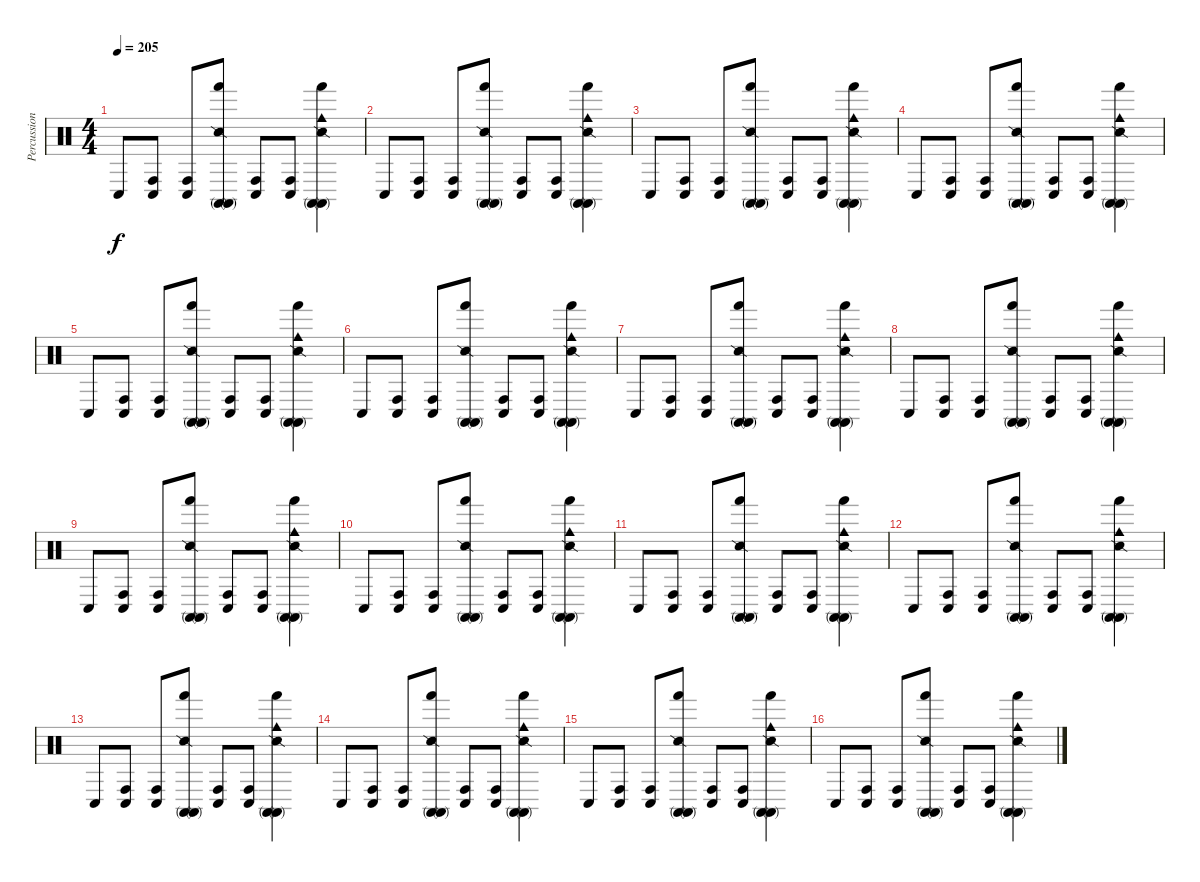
\track ("Percussion" "Percussion") {instrument percussion}
\staff {score}
\articulation defaults
\ts (4 4)
\tempo 205
\clef neutral
\ks c "Conga low (hit)".8{dy f}
("Conga high (hit)" "Conga low (hit)").8 ("Conga high (hit)" "Conga low (hit)").8 ("Snare (side stick) 2" "Hand (hit)" "Conga high (mute)" "Conga high (mute)").8 ("Conga high (hit)" "Conga low (hit)").8 ("Conga high (hit)" "Conga low (hit)").8 ("Snare (side stick) 2" "Hand (hit)" "Cowbell medium (hit)" "Conga high (mute)" "Conga high (mute)").4 |
"Conga low (hit)".8 ("Conga high (hit)" "Conga low (hit)").8 ("Conga high (hit)" "Conga low (hit)").8 ("Snare (side stick) 2" "Hand (hit)" "Conga high (mute)" "Conga high (mute)").8 ("Conga high (hit)" "Conga low (hit)").8 ("Conga high (hit)" "Conga low (hit)").8 ("Snare (side stick) 2" "Hand (hit)" "Cowbell medium (hit)" "Conga high (mute)" "Conga high (mute)").4 |
"Conga low (hit)".8 ("Conga high (hit)" "Conga low (hit)").8 ("Conga high (hit)" "Conga low (hit)").8 ("Snare (side stick) 2" "Hand (hit)" "Conga high (mute)" "Conga high (mute)").8 ("Conga high (hit)" "Conga low (hit)").8 ("Conga high (hit)" "Conga low (hit)").8 ("Snare (side stick) 2" "Hand (hit)" "Cowbell medium (hit)" "Conga high (mute)" "Conga high (mute)").4 |
"Conga low (hit)".8 ("Conga high (hit)" "Conga low (hit)").8 ("Conga high (hit)" "Conga low (hit)").8 ("Snare (side stick) 2" "Hand (hit)" "Conga high (mute)" "Conga high (mute)").8 ("Conga high (hit)" "Conga low (hit)").8 ("Conga high (hit)" "Conga low (hit)").8 ("Snare (side stick) 2" "Hand (hit)" "Cowbell medium (hit)" "Conga high (mute)" "Conga high (mute)").4 |
"Conga low (hit)".8 ("Conga high (hit)" "Conga low (hit)").8 ("Conga high (hit)" "Conga low (hit)").8 ("Snare (side stick) 2" "Hand (hit)" "Conga high (mute)" "Conga high (mute)").8 ("Conga high (hit)" "Conga low (hit)").8 ("Conga high (hit)" "Conga low (hit)").8 ("Snare (side stick) 2" "Hand (hit)" "Cowbell medium (hit)" "Conga high (mute)" "Conga high (mute)").4 |
"Conga low (hit)".8 ("Conga high (hit)" "Conga low (hit)").8 ("Conga high (hit)" "Conga low (hit)").8 ("Snare (side stick) 2" "Hand (hit)" "Conga high (mute)" "Conga high (mute)").8 ("Conga high (hit)" "Conga low (hit)").8 ("Conga high (hit)" "Conga low (hit)").8 ("Snare (side stick) 2" "Hand (hit)" "Cowbell medium (hit)" "Conga high (mute)" "Conga high (mute)").4 |
"Conga low (hit)".8 ("Conga high (hit)" "Conga low (hit)").8 ("Conga high (hit)" "Conga low (hit)").8 ("Snare (side stick) 2" "Hand (hit)" "Conga high (mute)" "Conga high (mute)").8 ("Conga high (hit)" "Conga low (hit)").8 ("Conga high (hit)" "Conga low (hit)").8 ("Snare (side stick) 2" "Hand (hit)" "Cowbell medium (hit)" "Conga high (mute)" "Conga high (mute)").4 |
"Conga low (hit)".8 ("Conga high (hit)" "Conga low (hit)").8 ("Conga high (hit)" "Conga low (hit)").8 ("Snare (side stick) 2" "Hand (hit)" "Conga high (mute)" "Conga high (mute)").8 ("Conga high (hit)" "Conga low (hit)").8 ("Conga high (hit)" "Conga low (hit)").8 ("Snare (side stick) 2" "Hand (hit)" "Cowbell medium (hit)" "Conga high (mute)" "Conga high (mute)").4 |
"Conga low (hit)".8 ("Conga high (hit)" "Conga low (hit)").8 ("Conga high (hit)" "Conga low (hit)").8 ("Snare (side stick) 2" "Hand (hit)" "Conga high (mute)" "Conga high (mute)").8 ("Conga high (hit)" "Conga low (hit)").8 ("Conga high (hit)" "Conga low (hit)").8 ("Snare (side stick) 2" "Hand (hit)" "Cowbell medium (hit)" "Conga high (mute)" "Conga high (mute)").4 |
"Conga low (hit)".8 ("Conga high (hit)" "Conga low (hit)").8 ("Conga high (hit)" "Conga low (hit)").8 ("Snare (side stick) 2" "Hand (hit)" "Conga high (mute)" "Conga high (mute)").8 ("Conga high (hit)" "Conga low (hit)").8 ("Conga high (hit)" "Conga low (hit)").8 ("Snare (side stick) 2" "Hand (hit)" "Cowbell medium (hit)" "Conga high (mute)" "Conga high (mute)").4 |
"Conga low (hit)".8 ("Conga high (hit)" "Conga low (hit)").8 ("Conga high (hit)" "Conga low (hit)").8 ("Snare (side stick) 2" "Hand (hit)" "Conga high (mute)" "Conga high (mute)").8 ("Conga high (hit)" "Conga low (hit)").8 ("Conga high (hit)" "Conga low (hit)").8 ("Snare (side stick) 2" "Hand (hit)" "Cowbell medium (hit)" "Conga high (mute)" "Conga high (mute)").4 |
"Conga low (hit)".8 ("Conga high (hit)" "Conga low (hit)").8 ("Conga high (hit)" "Conga low (hit)").8 ("Snare (side stick) 2" "Hand (hit)" "Conga high (mute)" "Conga high (mute)").8 ("Conga high (hit)" "Conga low (hit)").8 ("Conga high (hit)" "Conga low (hit)").8 ("Snare (side stick) 2" "Hand (hit)" "Cowbell medium (hit)" "Conga high (mute)" "Conga high (mute)").4 |
"Conga low (hit)".8 ("Conga high (hit)" "Conga low (hit)").8 ("Conga high (hit)" "Conga low (hit)").8 ("Snare (side stick) 2" "Hand (hit)" "Conga high (mute)" "Conga high (mute)").8 ("Conga high (hit)" "Conga low (hit)").8 ("Conga high (hit)" "Conga low (hit)").8 ("Snare (side stick) 2" "Hand (hit)" "Cowbell medium (hit)" "Conga high (mute)" "Conga high (mute)").4 |
"Conga low (hit)".8 ("Conga high (hit)" "Conga low (hit)").8 ("Conga high (hit)" "Conga low (hit)").8 ("Snare (side stick) 2" "Hand (hit)" "Conga high (mute)" "Conga high (mute)").8 ("Conga high (hit)" "Conga low (hit)").8 ("Conga high (hit)" "Conga low (hit)").8 ("Snare (side stick) 2" "Hand (hit)" "Cowbell medium (hit)" "Conga high (mute)" "Conga high (mute)").4 |
"Conga low (hit)".8 ("Conga high (hit)" "Conga low (hit)").8 ("Conga high (hit)" "Conga low (hit)").8 ("Snare (side stick) 2" "Hand (hit)" "Conga high (mute)" "Conga high (mute)").8 ("Conga high (hit)" "Conga low (hit)").8 ("Conga high (hit)" "Conga low (hit)").8 ("Snare (side stick) 2" "Hand (hit)" "Cowbell medium (hit)" "Conga high (mute)" "Conga high (mute)").4 |
"Conga low (hit)".8 ("Conga high (hit)" "Conga low (hit)").8 ("Conga high (hit)" "Conga low (hit)").8 ("Snare (side stick) 2" "Hand (hit)" "Conga high (mute)" "Conga high (mute)").8 ("Conga high (hit)" "Conga low (hit)").8 ("Conga high (hit)" "Conga low (hit)").8 ("Snare (side stick) 2" "Hand (hit)" "Cowbell medium (hit)" "Conga high (mute)" "Conga high (mute)").4
